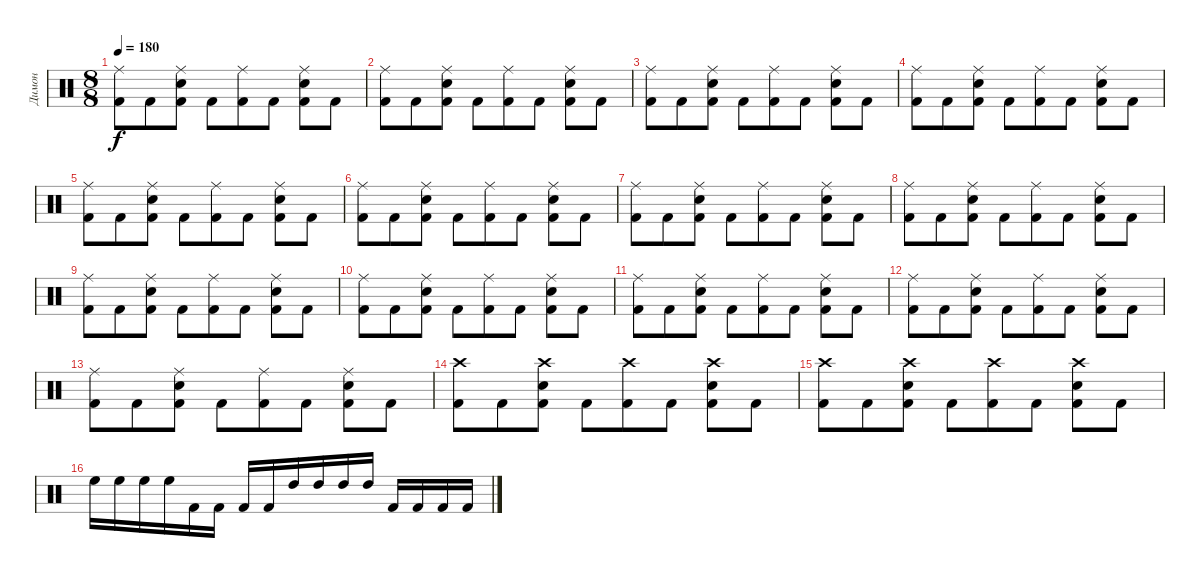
\track ("Димон" "Димон") {instrument percussion}
\staff {score}
\articulation defaults
\ts (8 8)
\tempo 180
\clef neutral
\ks c
("Ride (middle)" "Kick (hit) 2").8{dy f} "Kick (hit) 2".8 ("Electric Snare (hit)" "Ride (middle)" "Kick (hit) 2").8 "Kick (hit) 2".8 ("Ride (middle)" "Kick (hit) 2").8 "Kick (hit) 2".8 ("Electric Snare (hit)" "Ride (middle)" "Kick (hit) 2").8 "Kick (hit) 2".8 |
("Ride (middle)" "Kick (hit) 2").8 "Kick (hit) 2".8 ("Electric Snare (hit)" "Ride (middle)" "Kick (hit) 2").8 "Kick (hit) 2".8 ("Ride (middle)" "Kick (hit) 2").8 "Kick (hit) 2".8 ("Electric Snare (hit)" "Ride (middle)" "Kick (hit) 2").8 "Kick (hit) 2".8 |
("Ride (middle)" "Kick (hit) 2").8 "Kick (hit) 2".8 ("Electric Snare (hit)" "Ride (middle)" "Kick (hit) 2").8 "Kick (hit) 2".8 ("Ride (middle)" "Kick (hit) 2").8 "Kick (hit) 2".8 ("Electric Snare (hit)" "Ride (middle)" "Kick (hit) 2").8 "Kick (hit) 2".8 |
("Ride (middle)" "Kick (hit) 2").8 "Kick (hit) 2".8 ("Electric Snare (hit)" "Ride (middle)" "Kick (hit) 2").8 "Kick (hit) 2".8 ("Ride (middle)" "Kick (hit) 2").8 "Kick (hit) 2".8 ("Electric Snare (hit)" "Ride (middle)" "Kick (hit) 2").8 "Kick (hit) 2".8 |
("Ride (middle)" "Kick (hit) 2").8 "Kick (hit) 2".8 ("Electric Snare (hit)" "Ride (middle)" "Kick (hit) 2").8 "Kick (hit) 2".8 ("Ride (middle)" "Kick (hit) 2").8 "Kick (hit) 2".8 ("Electric Snare (hit)" "Ride (middle)" "Kick (hit) 2").8 "Kick (hit) 2".8 |
("Ride (middle)" "Kick (hit) 2").8 "Kick (hit) 2".8 ("Electric Snare (hit)" "Ride (middle)" "Kick (hit) 2").8 "Kick (hit) 2".8 ("Ride (middle)" "Kick (hit) 2").8 "Kick (hit) 2".8 ("Electric Snare (hit)" "Ride (middle)" "Kick (hit) 2").8 "Kick (hit) 2".8 |
("Ride (middle)" "Kick (hit) 2").8 "Kick (hit) 2".8 ("Electric Snare (hit)" "Ride (middle)" "Kick (hit) 2").8 "Kick (hit) 2".8 ("Ride (middle)" "Kick (hit) 2").8 "Kick (hit) 2".8 ("Electric Snare (hit)" "Ride (middle)" "Kick (hit) 2").8 "Kick (hit) 2".8 |
("Ride (middle)" "Kick (hit) 2").8 "Kick (hit) 2".8 ("Electric Snare (hit)" "Ride (middle)" "Kick (hit) 2").8 "Kick (hit) 2".8 ("Ride (middle)" "Kick (hit) 2").8 "Kick (hit) 2".8 ("Electric Snare (hit)" "Ride (middle)" "Kick (hit) 2").8 "Kick (hit) 2".8 |
("Ride (middle)" "Kick (hit) 2").8 "Kick (hit) 2".8 ("Electric Snare (hit)" "Ride (middle)" "Kick (hit) 2").8 "Kick (hit) 2".8 ("Ride (middle)" "Kick (hit) 2").8 "Kick (hit) 2".8 ("Electric Snare (hit)" "Ride (middle)" "Kick (hit) 2").8 "Kick (hit) 2".8 |
("Ride (middle)" "Kick (hit) 2").8 "Kick (hit) 2".8 ("Electric Snare (hit)" "Ride (middle)" "Kick (hit) 2").8 "Kick (hit) 2".8 ("Ride (middle)" "Kick (hit) 2").8 "Kick (hit) 2".8 ("Electric Snare (hit)" "Ride (middle)" "Kick (hit) 2").8 "Kick (hit) 2".8 |
("Ride (middle)" "Kick (hit) 2").8 "Kick (hit) 2".8 ("Electric Snare (hit)" "Ride (middle)" "Kick (hit) 2").8 "Kick (hit) 2".8 ("Ride (middle)" "Kick (hit) 2").8 "Kick (hit) 2".8 ("Electric Snare (hit)" "Ride (middle)" "Kick (hit) 2").8 "Kick (hit) 2".8 |
("Ride (middle)" "Kick (hit) 2").8 "Kick (hit) 2".8 ("Electric Snare (hit)" "Ride (middle)" "Kick (hit) 2").8 "Kick (hit) 2".8 ("Ride (middle)" "Kick (hit) 2").8 "Kick (hit) 2".8 ("Electric Snare (hit)" "Ride (middle)" "Kick (hit) 2").8 "Kick (hit) 2".8 |
("Ride (middle)" "Kick (hit) 2").8 "Kick (hit) 2".8 ("Electric Snare (hit)" "Ride (middle)" "Kick (hit) 2").8 "Kick (hit) 2".8 ("Ride (middle)" "Kick (hit) 2").8 "Kick (hit) 2".8 ("Electric Snare (hit)" "Ride (middle)" "Kick (hit) 2").8 "Kick (hit) 2".8 |
("Crash high (hit)" "Kick (hit) 2").8 "Kick (hit) 2".8 ("Crash high (hit)" "Electric Snare (hit)" "Kick (hit) 2").8 "Kick (hit) 2".8 ("Crash high (hit)" "Kick (hit) 2").8 "Kick (hit) 2".8 ("Electric Snare (hit)" "Crash high (hit)" "Kick (hit) 2").8 "Kick (hit) 2".8 |
("Crash high (hit)" "Kick (hit) 2").8 "Kick (hit) 2".8 ("Electric Snare (hit)" "Crash high (hit)" "Kick (hit) 2").8 "Kick (hit) 2".8 ("Crash high (hit)" "Kick (hit) 2").8 "Kick (hit) 2".8 ("Electric Snare (hit)" "Crash high (hit)" "Kick (hit) 2").8 "Kick (hit) 2".8 |
"High Floor Tom (hit)".16 "High Floor Tom (hit)".16 "High Floor Tom (hit)".16 "High Floor Tom (hit)".16 "Kick (hit) 2".16 "Kick (hit) 2".16 "Kick (hit) 2".16 "Kick (hit) 2".16 "High Tom (hit)".16 "High Tom (hit)".16 "High Tom (hit)".16 "High Tom (hit)".16 "Kick (hit) 2".16 "Kick (hit) 2".16 "Kick (hit) 2".16 "Kick (hit) 2".16
